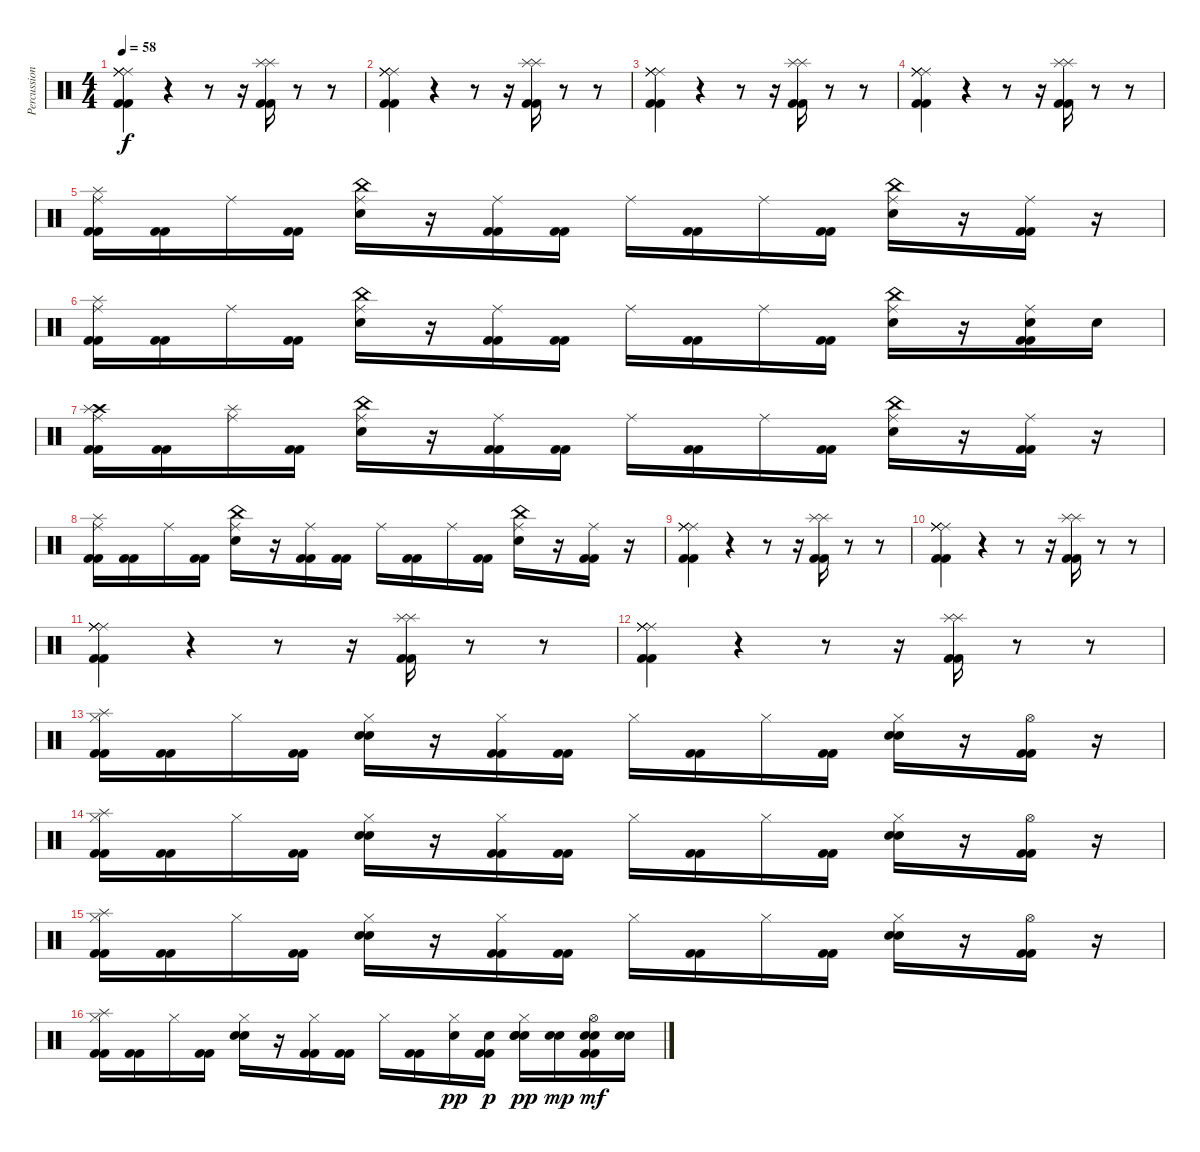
\track ("Percussion" "Percussion") {instrument percussion}
\staff {score}
\articulation defaults
\ts (4 4)
\tempo 58
\clef neutral
\ks c
("Ride (middle)" "Ride (middle)" "Ride (middle)" "Ride (middle)" "Kick (hit) 2" "Kick (hit) 2").4{dy f} r.4 r.8 r.16 ("Splash (hit)" "Splash (hit)" "Kick (hit) 2" "Kick (hit) 2").16 r.8 r.8 |
("Ride (middle)" "Ride (middle)" "Ride (middle)" "Ride (middle)" "Kick (hit) 2" "Kick (hit) 2").4 r.4 r.8 r.16 ("Splash (hit)" "Splash (hit)" "Kick (hit) 2" "Kick (hit) 2").16 r.8 r.8 |
("Ride (middle)" "Ride (middle)" "Ride (middle)" "Ride (middle)" "Kick (hit) 2" "Kick (hit) 2").4 r.4 r.8 r.16 ("Splash (hit)" "Splash (hit)" "Kick (hit) 2" "Kick (hit) 2").16 r.8 r.8 |
("Ride (middle)" "Ride (middle)" "Ride (middle)" "Ride (middle)" "Kick (hit) 2" "Kick (hit) 2").4 r.4 r.8 r.16 ("Splash (hit)" "Splash (hit)" "Kick (hit) 2" "Kick (hit) 2").16 r.8 r.8 |
("Ride (middle)" "Splash (hit)" "Kick (hit) 2" "Kick (hit) 2").16 ("Kick (hit) 2" "Kick (hit) 2").16 "Ride (middle)".16 ("Kick (hit) 2" "Kick (hit) 2").16 ("Ride (middle)" "China (hit)" "Snare (hit) 2").16 r.16 ("Ride (middle)" "Kick (hit) 2" "Kick (hit) 2").16 ("Kick (hit) 2" "Kick (hit) 2").16 "Ride (middle)".16 ("Kick (hit) 2" "Kick (hit) 2").16 "Ride (middle)".16 ("Kick (hit) 2" "Kick (hit) 2").16 ("Ride (middle)" "China (hit)" "Snare (hit) 2").16 r.16 ("Ride (middle)" "Kick (hit) 2" "Kick (hit) 2").16 r.16 |
("Ride (middle)" "Splash (hit)" "Kick (hit) 2" "Kick (hit) 2").16 ("Kick (hit) 2" "Kick (hit) 2").16 "Ride (middle)".16 ("Kick (hit) 2" "Kick (hit) 2").16 ("Ride (middle)" "China (hit)" "Snare (hit) 2").16 r.16 ("Ride (middle)" "Kick (hit) 2" "Kick (hit) 2").16 ("Kick (hit) 2" "Kick (hit) 2").16 "Ride (middle)".16 ("Kick (hit) 2" "Kick (hit) 2").16 "Ride (middle)".16 ("Kick (hit) 2" "Kick (hit) 2").16 ("Ride (middle)" "China (hit)" "Snare (hit) 2").16 r.16 ("Ride (middle)" "Snare (hit) 2" "Kick (hit) 2" "Kick (hit) 2").16 "Snare (hit) 2".16 |
("Ride (middle)" "Crash high (hit)" "Splash (hit)" "Kick (hit) 2" "Kick (hit) 2").16 ("Kick (hit) 2" "Kick (hit) 2").16 ("Ride (middle)" "Splash (hit)").16 ("Kick (hit) 2" "Kick (hit) 2").16 ("Ride (middle)" "China (hit)" "Snare (hit) 2").16 r.16 ("Ride (middle)" "Kick (hit) 2" "Kick (hit) 2").16 ("Kick (hit) 2" "Kick (hit) 2").16 "Ride (middle)".16 ("Kick (hit) 2" "Kick (hit) 2").16 "Ride (middle)".16 ("Kick (hit) 2" "Kick (hit) 2").16 ("Ride (middle)" "China (hit)" "Snare (hit) 2").16 r.16 ("Ride (middle)" "Kick (hit) 2" "Kick (hit) 2").16 r.16 |
("Ride (middle)" "Splash (hit)" "Kick (hit) 2" "Kick (hit) 2").16 ("Kick (hit) 2" "Kick (hit) 2").16 "Ride (middle)".16 ("Kick (hit) 2" "Kick (hit) 2").16 ("Ride (middle)" "China (hit)" "Snare (hit) 2").16 r.16 ("Ride (middle)" "Kick (hit) 2" "Kick (hit) 2").16 ("Kick (hit) 2" "Kick (hit) 2").16 "Ride (middle)".16 ("Kick (hit) 2" "Kick (hit) 2").16 "Ride (middle)".16 ("Kick (hit) 2" "Kick (hit) 2").16 ("Ride (middle)" "China (hit)" "Snare (hit) 2").16 r.16 ("Ride (middle)" "Kick (hit) 2" "Kick (hit) 2").16 r.16 |
("Ride (middle)" "Ride (middle)" "Ride (middle)" "Ride (middle)" "Kick (hit) 2" "Kick (hit) 2").4 r.4 r.8 r.16 ("Splash (hit)" "Splash (hit)" "Kick (hit) 2" "Kick (hit) 2").16 r.8 r.8 |
("Ride (middle)" "Ride (middle)" "Ride (middle)" "Ride (middle)" "Kick (hit) 2" "Kick (hit) 2").4 r.4 r.8 r.16 ("Splash (hit)" "Splash (hit)" "Kick (hit) 2" "Kick (hit) 2").16 r.8 r.8 |
("Ride (middle)" "Ride (middle)" "Ride (middle)" "Ride (middle)" "Kick (hit) 2" "Kick (hit) 2").4 r.4 r.8 r.16 ("Splash (hit)" "Splash (hit)" "Kick (hit) 2" "Kick (hit) 2").16 r.8 r.8 |
("Ride (middle)" "Ride (middle)" "Ride (middle)" "Ride (middle)" "Kick (hit) 2" "Kick (hit) 2").4 r.4 r.8 r.16 ("Splash (hit)" "Splash (hit)" "Kick (hit) 2" "Kick (hit) 2").16 r.8 r.8 |
("Hi-Hat (closed)" "Splash (hit)" "Kick (hit) 2" "Kick (hit) 2").16 ("Kick (hit) 2" "Kick (hit) 2").16 "Hi-Hat (closed)".16 ("Kick (hit) 2" "Kick (hit) 2").16 ("Hi-Hat (closed)" "Snare (hit) 2" "Snare (hit) 2").16 r.16 ("Hi-Hat (closed)" "Kick (hit) 2" "Kick (hit) 2").16 ("Kick (hit) 2" "Kick (hit) 2").16 "Hi-Hat (closed)".16 ("Kick (hit) 2" "Kick (hit) 2").16 "Hi-Hat (closed)".16 ("Kick (hit) 2" "Kick (hit) 2").16 ("Hi-Hat (closed)" "Snare (hit) 2" "Snare (hit) 2").16 r.16 ("Hi-Hat (open)" "Kick (hit) 2" "Kick (hit) 2").16 r.16 |
("Hi-Hat (closed)" "Splash (hit)" "Kick (hit) 2" "Kick (hit) 2").16 ("Kick (hit) 2" "Kick (hit) 2").16 "Hi-Hat (closed)".16 ("Kick (hit) 2" "Kick (hit) 2").16 ("Hi-Hat (closed)" "Snare (hit) 2" "Snare (hit) 2").16 r.16 ("Hi-Hat (closed)" "Kick (hit) 2" "Kick (hit) 2").16 ("Kick (hit) 2" "Kick (hit) 2").16 "Hi-Hat (closed)".16 ("Kick (hit) 2" "Kick (hit) 2").16 "Hi-Hat (closed)".16 ("Kick (hit) 2" "Kick (hit) 2").16 ("Hi-Hat (closed)" "Snare (hit) 2" "Snare (hit) 2").16 r.16 ("Hi-Hat (open)" "Kick (hit) 2" "Kick (hit) 2").16 r.16 |
("Hi-Hat (closed)" "Splash (hit)" "Kick (hit) 2" "Kick (hit) 2").16 ("Kick (hit) 2" "Kick (hit) 2").16 "Hi-Hat (closed)".16 ("Kick (hit) 2" "Kick (hit) 2").16 ("Hi-Hat (closed)" "Snare (hit) 2" "Snare (hit) 2").16 r.16 ("Hi-Hat (closed)" "Kick (hit) 2" "Kick (hit) 2").16 ("Kick (hit) 2" "Kick (hit) 2").16 "Hi-Hat (closed)".16 ("Kick (hit) 2" "Kick (hit) 2").16 "Hi-Hat (closed)".16 ("Kick (hit) 2" "Kick (hit) 2").16 ("Hi-Hat (closed)" "Snare (hit) 2" "Snare (hit) 2").16 r.16 ("Hi-Hat (open)" "Kick (hit) 2" "Kick (hit) 2").16 r.16 |
("Hi-Hat (closed)" "Splash (hit)" "Kick (hit) 2" "Kick (hit) 2").16 ("Kick (hit) 2" "Kick (hit) 2").16 "Hi-Hat (closed)".16 ("Kick (hit) 2" "Kick (hit) 2").16 ("Hi-Hat (closed)" "Snare (hit) 2" "Snare (hit) 2").16 r.16 ("Hi-Hat (closed)" "Kick (hit) 2" "Kick (hit) 2").16 ("Kick (hit) 2" "Kick (hit) 2").16 "Hi-Hat (closed)".16 ("Kick (hit) 2" "Kick (hit) 2").16 ("Hi-Hat (closed)" "Snare (hit) 2").16{dy pp} ("Snare (hit) 2" "Kick (hit) 2" "Kick (hit) 2").16{dy p} ("Hi-Hat (closed)" "Snare (hit) 2" "Snare (hit) 2" "Snare (hit) 2").16{dy pp} ("Snare (hit) 2" "Snare (hit) 2").16{dy mp} ("Hi-Hat (open)" "Snare (hit) 2" "Snare (hit) 2" "Kick (hit) 2" "Kick (hit) 2").16{dy mf} ("Snare (hit) 2" "Snare (hit) 2").16
